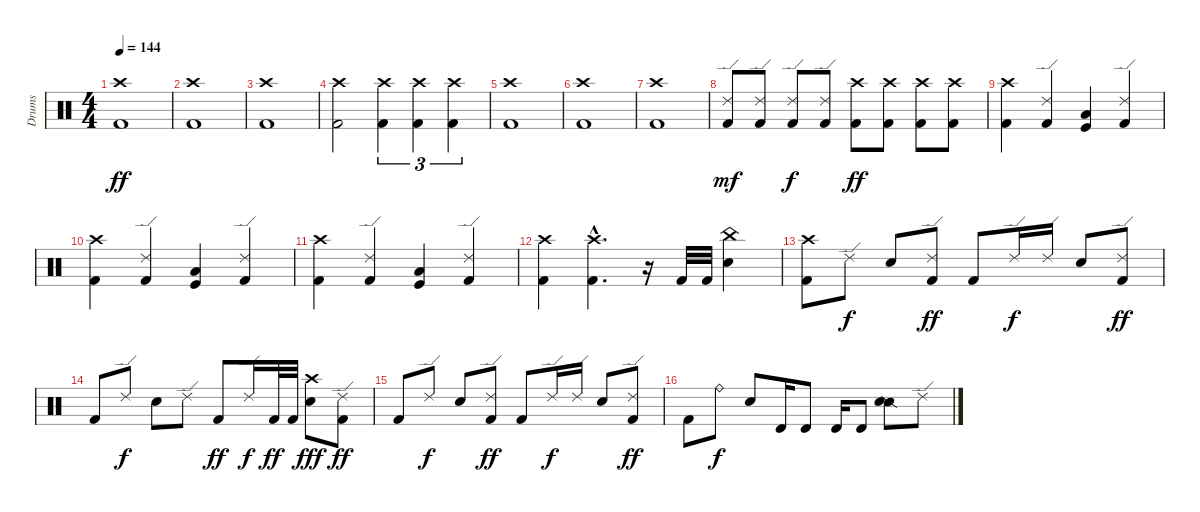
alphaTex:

\track ("Drums" "Drums") {instrument percussion}
\staff {score}
\articulation defaults
\ts (4 4)
\tempo 144
\clef neutral
\ks c
("Crash high (hit)" "Kick (hit) 2").1{dy ff} |
("Crash high (hit)" "Kick (hit) 2").1 |
("Crash high (hit)" "Kick (hit) 2").1 |
("Crash high (hit)" "Kick (hit) 2").2 ("Crash high (hit)" "Kick (hit) 2").4{tu (3 2)} ("Crash high (hit)" "Kick (hit) 2").4{tu (3 2)} ("Crash high (hit)" "Kick (hit) 2").4{tu (3 2)} |
("Crash high (hit)" "Kick (hit) 2").1 |
("Crash high (hit)" "Kick (hit) 2").1 |
("Crash high (hit)" "Kick (hit) 2").1 |
("Ride (edge) 2" "Kick (hit) 2").8{dy mf} ("Ride (edge) 2" "Kick (hit) 2").8 ("Ride (edge) 2" "Kick (hit) 2").8{dy f} ("Ride (edge) 2" "Kick (hit) 2").8 ("Crash high (hit)" "Kick (hit) 2").8{dy ff} ("Crash high (hit)" "Kick (hit) 2").8 ("Crash high (hit)" "Kick (hit) 2").8 ("Crash high (hit)" "Kick (hit) 2").8 |
("Crash high (hit)" "Kick (hit) 2").4 ("Ride (edge) 2" "Kick (hit) 2").4 ("Low Floor Tom (hit)" "Kick (hit)").4 ("Ride (edge) 2" "Kick (hit) 2").4 |
("Crash high (hit)" "Kick (hit) 2").4 ("Ride (edge) 2" "Kick (hit) 2").4 ("Low Floor Tom (hit)" "Kick (hit)").4 ("Ride (edge) 2" "Kick (hit) 2").4 |
("Crash high (hit)" "Kick (hit) 2").4 ("Ride (edge) 2" "Kick (hit) 2").4 ("Low Floor Tom (hit)" "Kick (hit)").4 ("Ride (edge) 2" "Kick (hit) 2").4 |
("Crash high (hit)" "Kick (hit) 2").4 ("Crash high (hit)"{hac} "Kick (hit) 2"{hac}).4{d} r.16 "Kick (hit) 2".32 "Kick (hit) 2".32 ("China (hit)" "Snare (hit) 2").4 |
("Crash high (hit)" "Kick (hit) 2").8 "Ride (edge) 2".8{dy f} "Snare (hit) 2".8 ("Ride (edge) 2" "Kick (hit) 2").8{dy ff} "Kick (hit) 2".8 "Ride (edge) 2".16{dy f} "Ride (edge) 2".16 "Snare (hit) 2".8 ("Ride (edge) 2" "Kick (hit) 2").8{dy ff} |
"Kick (hit) 2".8 "Ride (edge) 2".8{dy f} "Snare (hit) 2".8 "Ride (edge) 2".8 "Kick (hit) 2".8{dy ff} "Ride (edge) 2".16{dy f} "Kick (hit) 2".32{dy ff} "Kick (hit) 2".32 ("Crash high (hit)" "Snare (hit) 2").8{dy fff} ("Ride (edge) 2" "Kick (hit) 2").8{dy ff} |
"Kick (hit) 2".8 "Ride (edge) 2".8{dy f} "Snare (hit) 2".8 ("Ride (edge) 2" "Kick (hit) 2").8{dy ff} "Kick (hit) 2".8 "Ride (edge) 2".16{dy f} "Ride (edge) 2".16 "Snare (hit) 2".8 ("Ride (edge) 2" "Kick (hit) 2").8{dy ff} |
"Kick (hit) 2".8 "Ride (bell)".8{dy f} "Snare (hit) 2".8 "Timbale high (hit)".16 "Timbale high (hit)".8 "Timbale high (hit)".16 "Timbale high (hit)".8 ("Snare (side stick) 2" "Snare (hit) 2").8 "Ride (edge) 2".8
